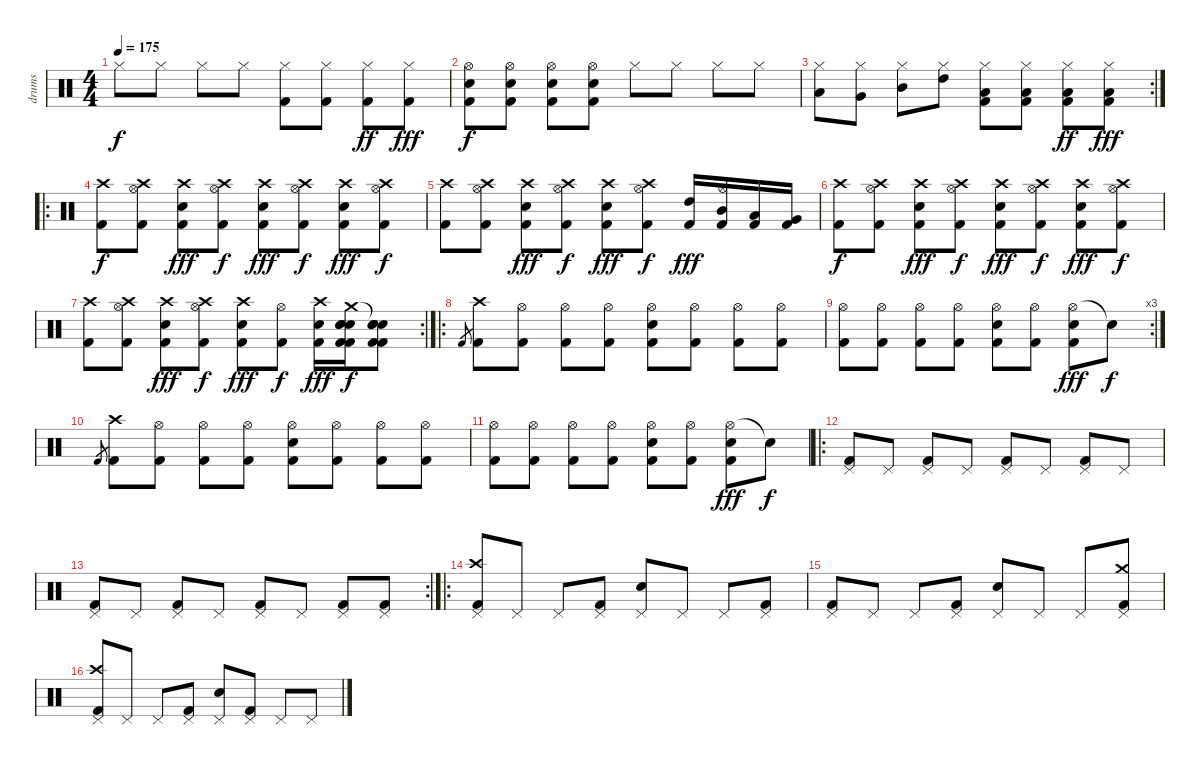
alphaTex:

\track ("drums" "drums") {instrument percussion}
\staff {score}
\articulation defaults
\ts (4 4)
\tempo 175
\clef neutral
\ks c "Hi-Hat (closed)".8{dy f} "Hi-Hat (closed)".8 "Hi-Hat (closed)".8 "Hi-Hat (closed)".8
("Kick (hit) 2" "Hi-Hat (closed)").8 ("Kick (hit) 2" "Hi-Hat (closed)").8 ("Kick (hit) 2" "Hi-Hat (closed)").8{dy ff} ("Kick (hit) 2" "Hi-Hat (closed)").8{dy fff} |
("Electric Snare (hit)" "Kick (hit) 2" "Hi-Hat (open)").8{dy f} ("Electric Snare (hit)" "Kick (hit) 2" "Hi-Hat (open)").8 ("Electric Snare (hit)" "Kick (hit) 2" "Hi-Hat (open)").8 ("Electric Snare (hit)" "Kick (hit) 2" "Hi-Hat (open)").8 "Hi-Hat (closed)".8 "Hi-Hat (closed)".8 "Hi-Hat (closed)".8 "Hi-Hat (closed)".8 |
\rc 2
("Low Tom (hit)" "Hi-Hat (closed)").8 ("Very Low Tom (hit)" "Hi-Hat (closed)").8 ("Mid Tom (hit)" "Hi-Hat (closed)").8 ("High Tom (hit)" "Hi-Hat (closed)").8 ("Low Tom (hit)" "Kick (hit) 2" "Hi-Hat (closed)").8 ("Low Tom (hit)" "Kick (hit) 2" "Hi-Hat (closed)").8 ("Low Tom (hit)" "Kick (hit) 2" "Hi-Hat (closed)").8{dy ff} ("Low Tom (hit)" "Kick (hit) 2" "Hi-Hat (closed)").8{dy fff} |
\ro
("Crash high (hit)" "Kick (hit) 2").8{dy f volume 13} ("Crash high (hit)" "Hi-Hat (open)" "Kick (hit) 2").8 ("Crash high (hit)" "Kick (hit) 2" "Electric Snare (hit)").8{dy fff} ("Crash high (hit)" "Hi-Hat (open)" "Kick (hit) 2").8{dy f} ("Crash high (hit)" "Kick (hit) 2" "Electric Snare (hit)").8{dy fff} ("Crash high (hit)" "Hi-Hat (open)" "Kick (hit) 2").8{dy f} ("Crash high (hit)" "Kick (hit) 2" "Electric Snare (hit)").8{dy fff} ("Crash high (hit)" "Hi-Hat (open)" "Kick (hit) 2").8{dy f} |
("Crash high (hit)" "Kick (hit) 2").8 ("Crash high (hit)" "Hi-Hat (open)" "Kick (hit) 2").8 ("Crash high (hit)" "Kick (hit) 2" "Electric Snare (hit)").8{dy fff} ("Crash high (hit)" "Hi-Hat (open)" "Kick (hit) 2").8{dy f} ("Crash high (hit)" "Kick (hit) 2" "Electric Snare (hit)").8{dy fff} ("Crash high (hit)" "Hi-Hat (open)" "Kick (hit) 2").8{dy f} ("High Tom (hit)" "Kick (hit) 2").16{dy fff} ("Mid Tom (hit)" "Hi-Hat (open)" "Kick (hit) 2").16 ("Low Tom (hit)" "Kick (hit) 2").16 ("Very Low Tom (hit)" "Kick (hit) 2").16 |
("Crash high (hit)" "Kick (hit) 2").8{dy f} ("Crash high (hit)" "Hi-Hat (open)" "Kick (hit) 2").8 ("Crash high (hit)" "Kick (hit) 2" "Electric Snare (hit)").8{dy fff} ("Crash high (hit)" "Hi-Hat (open)" "Kick (hit) 2").8{dy f} ("Crash high (hit)" "Kick (hit) 2" "Electric Snare (hit)").8{dy fff} ("Crash high (hit)" "Hi-Hat (open)" "Kick (hit) 2").8{dy f} ("Crash high (hit)" "Kick (hit) 2" "Electric Snare (hit)").8{dy fff} ("Crash high (hit)" "Hi-Hat (open)" "Kick (hit) 2").8{dy f} |
\rc 2
("Crash high (hit)" "Kick (hit) 2").8 ("Crash high (hit)" "Hi-Hat (open)" "Kick (hit) 2").8 ("Crash high (hit)" "Kick (hit) 2" "Electric Snare (hit)").8{dy fff} ("Crash high (hit)" "Hi-Hat (open)" "Kick (hit) 2").8{dy f} ("Crash high (hit)" "Kick (hit) 2" "Electric Snare (hit)").8{dy fff} ("Hi-Hat (open)" "Kick (hit) 2").8{dy f} ("Crash high (hit)" "Kick (hit) 2" "Electric Snare (hit)").16{dy fff} ("Crash medium (hit)" "Electric Snare (hit)" "Kick (hit) 2" "Electric Snare (hit)" "Kick (hit) 2" "Electric Snare (hit)").16{dy f} ("Snare (hit)"{t} "Electric Snare (hit)" "Kick (hit) 2" "Electric Snare (hit)" "Kick (hit) 2" "Electric Snare (hit)").8 |
\ro "Kick (hit) 2".8{gr}
("Crash high (hit)" "Kick (hit) 2").8{volume 13} ("Hi-Hat (open)" "Kick (hit) 2").8 ("Hi-Hat (open)" "Kick (hit) 2").8 ("Hi-Hat (open)" "Kick (hit) 2").8 ("Hi-Hat (open)" "Electric Snare (hit)" "Kick (hit) 2").8 ("Hi-Hat (open)" "Kick (hit) 2").8 ("Hi-Hat (open)" "Kick (hit) 2").8 ("Hi-Hat (open)" "Kick (hit) 2").8 |
\rc 3
("Hi-Hat (open)" "Kick (hit) 2").8 ("Hi-Hat (open)" "Kick (hit) 2").8 ("Hi-Hat (open)" "Kick (hit) 2").8 ("Hi-Hat (open)" "Kick (hit) 2").8 ("Hi-Hat (open)" "Electric Snare (hit)" "Kick (hit) 2").8 ("Hi-Hat (open)" "Kick (hit) 2").8 ("Hi-Hat (open)" "Electric Snare (hit)" "Kick (hit) 2").8{dy fff} "Snare (hit)"{t}.8{dy f} |
"Kick (hit) 2".8{gr} ("Crash high (hit)" "Kick (hit) 2").8{volume 13} ("Hi-Hat (open)" "Kick (hit) 2").8 ("Hi-Hat (open)" "Kick (hit) 2").8 ("Hi-Hat (open)" "Kick (hit) 2").8 ("Hi-Hat (open)" "Electric Snare (hit)" "Kick (hit) 2").8 ("Hi-Hat (open)" "Kick (hit) 2").8 ("Hi-Hat (open)" "Kick (hit) 2").8 ("Hi-Hat (open)" "Kick (hit) 2").8 |
("Hi-Hat (open)" "Kick (hit) 2").8 ("Hi-Hat (open)" "Kick (hit) 2").8 ("Hi-Hat (open)" "Kick (hit) 2").8 ("Hi-Hat (open)" "Kick (hit) 2").8 ("Hi-Hat (open)" "Electric Snare (hit)" "Kick (hit) 2").8 ("Hi-Hat (open)" "Kick (hit) 2").8 ("Hi-Hat (open)" "Electric Snare (hit)" "Kick (hit) 2").8{dy fff} "Snare (hit)"{t}.8{dy f} |
\ro
("Kick (hit) 2" "Pedal Hi-Hat (hit)").8 "Pedal Hi-Hat (hit)".8 ("Kick (hit) 2" "Pedal Hi-Hat (hit)").8 "Pedal Hi-Hat (hit)".8 ("Kick (hit) 2" "Pedal Hi-Hat (hit)").8 "Pedal Hi-Hat (hit)".8 ("Kick (hit) 2" "Pedal Hi-Hat (hit)").8 "Pedal Hi-Hat (hit)".8 |
\rc 2
("Kick (hit) 2" "Pedal Hi-Hat (hit)").8 "Pedal Hi-Hat (hit)".8 ("Kick (hit) 2" "Pedal Hi-Hat (hit)").8 "Pedal Hi-Hat (hit)".8 ("Kick (hit) 2" "Pedal Hi-Hat (hit)").8 "Pedal Hi-Hat (hit)".8 ("Kick (hit) 2" "Pedal Hi-Hat (hit)").8 ("Kick (hit) 2" "Pedal Hi-Hat (hit)").8 |
\ro
("Crash high (hit)" "Kick (hit) 2" "Pedal Hi-Hat (hit)").8 "Pedal Hi-Hat (hit)".8 "Pedal Hi-Hat (hit)".8 ("Kick (hit) 2" "Pedal Hi-Hat (hit)").8 ("Snare (hit) 2" "Pedal Hi-Hat (hit)").8 "Pedal Hi-Hat (hit)".8 "Pedal Hi-Hat (hit)".8 ("Kick (hit) 2" "Pedal Hi-Hat (hit)").8 |
("Kick (hit) 2" "Pedal Hi-Hat (hit)").8 "Pedal Hi-Hat (hit)".8 "Pedal Hi-Hat (hit)".8 ("Kick (hit) 2" "Pedal Hi-Hat (hit)").8 ("Snare (hit) 2" "Pedal Hi-Hat (hit)").8 "Pedal Hi-Hat (hit)".8 "Pedal Hi-Hat (hit)".8 ("Crash medium (hit)" "Kick (hit) 2" "Pedal Hi-Hat (hit)").8 |
("Crash high (hit)" "Kick (hit) 2" "Pedal Hi-Hat (hit)").8 "Pedal Hi-Hat (hit)".8 "Pedal Hi-Hat (hit)".8 ("Kick (hit) 2" "Pedal Hi-Hat (hit)").8 ("Snare (hit) 2" "Pedal Hi-Hat (hit)").8 ("Kick (hit) 2" "Pedal Hi-Hat (hit)").8 "Pedal Hi-Hat (hit)".8 "Pedal Hi-Hat (hit)".8
